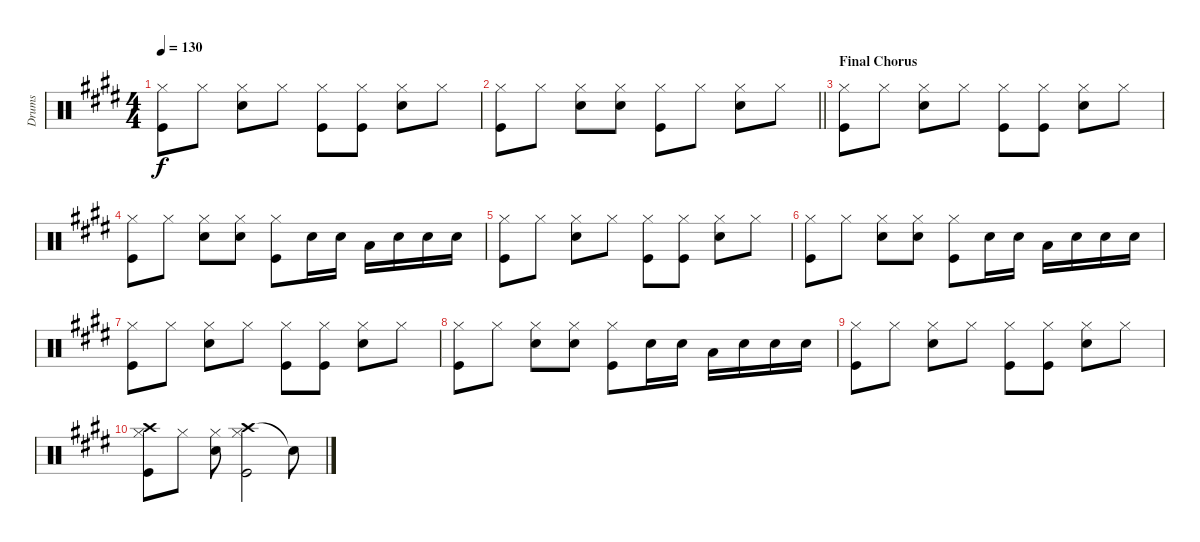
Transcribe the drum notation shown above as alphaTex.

\track ("Drums" "Drums") {instrument percussion}
\staff {score}
\articulation defaults
\ts (4 4)
\tempo 130
\clef neutral
\ks e
("Hi-Hat (closed)" "Kick (hit)").8{dy f} "Hi-Hat (closed)".8 ("Hi-Hat (closed)" "Snare (hit) 2").8 "Hi-Hat (closed)".8 ("Hi-Hat (closed)" "Kick (hit)").8 ("Hi-Hat (closed)" "Kick (hit)").8 ("Hi-Hat (closed)" "Snare (hit) 2").8 "Hi-Hat (closed)".8 |
\barLineRight lightlight
("Hi-Hat (closed)" "Kick (hit)").8 "Hi-Hat (closed)".8 ("Hi-Hat (closed)" "Snare (hit) 2").8 ("Hi-Hat (closed)" "Snare (hit) 2").8 ("Hi-Hat (closed)" "Kick (hit)").8 "Hi-Hat (closed)".8 ("Hi-Hat (closed)" "Snare (hit) 2").8 "Hi-Hat (closed)".8 |
\section ("" "Final Chorus")
("Hi-Hat (closed)" "Kick (hit)").8 "Hi-Hat (closed)".8 ("Hi-Hat (closed)" "Snare (hit) 2").8 "Hi-Hat (closed)".8 ("Hi-Hat (closed)" "Kick (hit)").8 ("Hi-Hat (closed)" "Kick (hit)").8 ("Hi-Hat (closed)" "Snare (hit) 2").8 "Hi-Hat (closed)".8 |
("Hi-Hat (closed)" "Kick (hit)").8 "Hi-Hat (closed)".8 ("Hi-Hat (closed)" "Snare (hit) 2").8 ("Hi-Hat (closed)" "Snare (hit) 2").8 ("Hi-Hat (closed)" "Kick (hit)").8 "Snare (hit) 2".16 "Snare (hit) 2".16 "Low Tom (hit)".16 "Snare (hit) 2".16 "Snare (hit) 2".16 "Snare (hit) 2".16 |
("Hi-Hat (closed)" "Kick (hit)").8 "Hi-Hat (closed)".8 ("Hi-Hat (closed)" "Snare (hit) 2").8 "Hi-Hat (closed)".8 ("Hi-Hat (closed)" "Kick (hit)").8 ("Hi-Hat (closed)" "Kick (hit)").8 ("Hi-Hat (closed)" "Snare (hit) 2").8 "Hi-Hat (closed)".8 |
("Hi-Hat (closed)" "Kick (hit)").8 "Hi-Hat (closed)".8 ("Hi-Hat (closed)" "Snare (hit) 2").8 ("Hi-Hat (closed)" "Snare (hit) 2").8 ("Hi-Hat (closed)" "Kick (hit)").8 "Snare (hit) 2".16 "Snare (hit) 2".16 "Low Tom (hit)".16 "Snare (hit) 2".16 "Snare (hit) 2".16 "Snare (hit) 2".16 |
("Hi-Hat (closed)" "Kick (hit)").8 "Hi-Hat (closed)".8 ("Hi-Hat (closed)" "Snare (hit) 2").8 "Hi-Hat (closed)".8 ("Hi-Hat (closed)" "Kick (hit)").8 ("Hi-Hat (closed)" "Kick (hit)").8 ("Hi-Hat (closed)" "Snare (hit) 2").8 "Hi-Hat (closed)".8 |
("Hi-Hat (closed)" "Kick (hit)").8 "Hi-Hat (closed)".8 ("Hi-Hat (closed)" "Snare (hit) 2").8 ("Hi-Hat (closed)" "Snare (hit) 2").8 ("Hi-Hat (closed)" "Kick (hit)").8 "Snare (hit) 2".16 "Snare (hit) 2".16 "Low Tom (hit)".16 "Snare (hit) 2".16 "Snare (hit) 2".16 "Snare (hit) 2".16 |
("Hi-Hat (closed)" "Kick (hit)").8 "Hi-Hat (closed)".8 ("Hi-Hat (closed)" "Snare (hit) 2").8 "Hi-Hat (closed)".8 ("Hi-Hat (closed)" "Kick (hit)").8 ("Hi-Hat (closed)" "Kick (hit)").8 ("Hi-Hat (closed)" "Snare (hit) 2").8 "Hi-Hat (closed)".8 |
("Crash high (hit)" "Hi-Hat (closed)" "Kick (hit)").8 "Hi-Hat (closed)".8 ("Hi-Hat (closed)" "Snare (hit) 2").8 ("Crash high (hit)" "Hi-Hat (closed)" "Kick (hit)").2 "Snare (hit)"{t}.8
